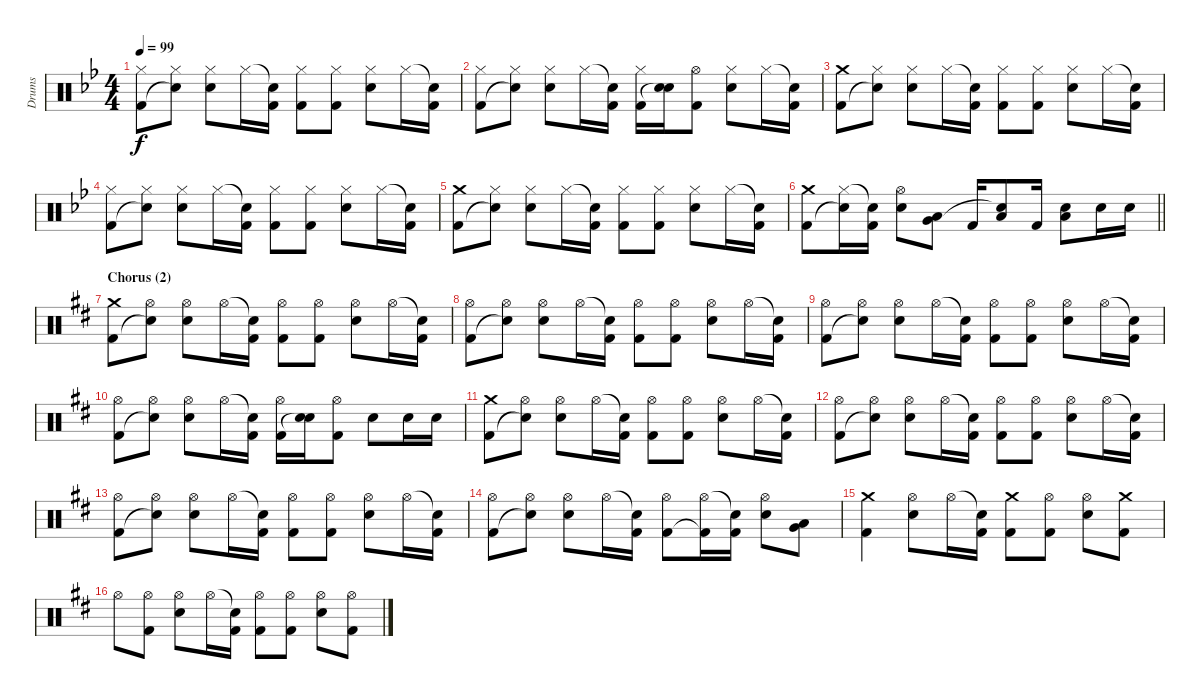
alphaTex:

\track ("Drums" "Drums") {instrument percussion}
\staff {score}
\articulation defaults
\ts (4 4)
\tempo 99
\clef neutral
\ks gminor
("Hi-Hat (closed)" "Kick (hit) 2").8{dy f} ("Hi-Hat (closed)" "Snare (hit)"{t}).8 ("Hi-Hat (closed)" "Electric Snare (hit)").8 "Hi-Hat (closed)".16 ("Snare (hit)"{t} "Kick (hit) 2").16 ("Hi-Hat (closed)" "Kick (hit) 2").8 ("Hi-Hat (closed)" "Kick (hit) 2").8 ("Hi-Hat (closed)" "Electric Snare (hit)").8 "Hi-Hat (closed)".16 ("Snare (hit)"{t} "Kick (hit) 2").16 |
("Hi-Hat (closed)" "Kick (hit) 2").8 ("Hi-Hat (closed)" "Snare (hit)"{t}).8 ("Hi-Hat (closed)" "Electric Snare (hit)").8 "Hi-Hat (closed)".16 ("Snare (hit)"{t} "Kick (hit) 2").16 ("Hi-Hat (closed)" "Kick (hit) 2").16 ("Electric Snare (hit)" "Snare (hit)"{t}).16 ("Hi-Hat (open)" "Kick (hit) 2").8 ("Hi-Hat (closed)" "Electric Snare (hit)").8 "Hi-Hat (closed)".16 ("Snare (hit)"{t} "Kick (hit) 2").16 |
("Crash medium (hit)" "Kick (hit) 2").8 ("Hi-Hat (closed)" "Snare (hit)"{t}).8 ("Hi-Hat (closed)" "Electric Snare (hit)").8 "Hi-Hat (closed)".16 ("Snare (hit)"{t} "Kick (hit) 2").16 ("Hi-Hat (closed)" "Kick (hit) 2").8 ("Hi-Hat (closed)" "Kick (hit) 2").8 ("Hi-Hat (closed)" "Electric Snare (hit)").8 "Hi-Hat (closed)".16 ("Snare (hit)"{t} "Kick (hit) 2").16 |
("Hi-Hat (closed)" "Kick (hit) 2").8 ("Hi-Hat (closed)" "Snare (hit)"{t}).8 ("Hi-Hat (closed)" "Electric Snare (hit)").8 "Hi-Hat (closed)".16 ("Snare (hit)"{t} "Kick (hit) 2").16 ("Hi-Hat (closed)" "Kick (hit) 2").8 ("Hi-Hat (closed)" "Kick (hit) 2").8 ("Hi-Hat (closed)" "Electric Snare (hit)").8 "Hi-Hat (closed)".16 ("Snare (hit)"{t} "Kick (hit) 2").16 |
("Crash medium (hit)" "Kick (hit) 2").8 ("Hi-Hat (closed)" "Snare (hit)"{t}).8 ("Hi-Hat (closed)" "Electric Snare (hit)").8 "Hi-Hat (closed)".16 ("Snare (hit)"{t} "Kick (hit) 2").16 ("Hi-Hat (closed)" "Kick (hit) 2").8 ("Hi-Hat (closed)" "Kick (hit) 2").8 ("Hi-Hat (closed)" "Electric Snare (hit)").8 "Hi-Hat (closed)".16 ("Snare (hit)"{t} "Kick (hit) 2").16 |
\barLineRight lightlight
("Crash medium (hit)" "Kick (hit) 2").8 ("Hi-Hat (closed)" "Snare (hit)"{t}).16 ("Snare (hit)"{t} "Kick (hit) 2").16 ("Hi-Hat (open)" "Electric Snare (hit)").8 ("Low Tom (hit)" "Very Low Tom (hit)").8 "Kick (hit) 2".16 ("Low Tom (hit)" "Snare (hit)"{t}).8 "Kick (hit) 2".16 ("Electric Snare (hit)" "Low Floor Tom (hit)").8 "Electric Snare (hit)".16 "Electric Snare (hit)".16 |
\section ("" "Chorus (2)")
\ks d
("Crash medium (hit)" "Kick (hit) 2").8 ("Hi-Hat (open)" "Snare (hit)"{t}).8 ("Hi-Hat (open)" "Electric Snare (hit)").8 "Hi-Hat (open)".16 ("Snare (hit)"{t} "Kick (hit) 2").16 ("Hi-Hat (open)" "Kick (hit) 2").8 ("Hi-Hat (open)" "Kick (hit) 2").8 ("Hi-Hat (open)" "Electric Snare (hit)").8 "Hi-Hat (open)".16 ("Snare (hit)"{t} "Kick (hit) 2").16 |
("Hi-Hat (open)" "Kick (hit) 2").8 ("Hi-Hat (open)" "Snare (hit)"{t}).8 ("Hi-Hat (open)" "Electric Snare (hit)").8 "Hi-Hat (open)".16 ("Snare (hit)"{t} "Kick (hit) 2").16 ("Hi-Hat (open)" "Kick (hit) 2").8 ("Hi-Hat (open)" "Kick (hit) 2").8 ("Hi-Hat (open)" "Electric Snare (hit)").8 "Hi-Hat (open)".16 ("Snare (hit)"{t} "Kick (hit) 2").16 |
("Hi-Hat (open)" "Kick (hit) 2").8 ("Hi-Hat (open)" "Snare (hit)"{t}).8 ("Hi-Hat (open)" "Electric Snare (hit)").8 "Hi-Hat (open)".16 ("Snare (hit)"{t} "Kick (hit) 2").16 ("Hi-Hat (open)" "Kick (hit) 2").8 ("Hi-Hat (open)" "Kick (hit) 2").8 ("Hi-Hat (open)" "Electric Snare (hit)").8 "Hi-Hat (open)".16 ("Snare (hit)"{t} "Kick (hit) 2").16 |
("Hi-Hat (open)" "Kick (hit) 2").8 ("Hi-Hat (open)" "Snare (hit)"{t}).8 ("Hi-Hat (open)" "Electric Snare (hit)").8 "Hi-Hat (open)".16 ("Snare (hit)"{t} "Kick (hit) 2").16 ("Hi-Hat (open)" "Kick (hit) 2").16 ("Electric Snare (hit)" "Snare (hit)"{t}).16 ("Hi-Hat (open)" "Kick (hit) 2").8 "Electric Snare (hit)".8 "Electric Snare (hit)".16 "Electric Snare (hit)".16 |
("Crash medium (hit)" "Kick (hit) 2").8 ("Hi-Hat (open)" "Snare (hit)"{t}).8 ("Hi-Hat (open)" "Electric Snare (hit)").8 "Hi-Hat (open)".16 ("Snare (hit)"{t} "Kick (hit) 2").16 ("Hi-Hat (open)" "Kick (hit) 2").8 ("Hi-Hat (open)" "Kick (hit) 2").8 ("Hi-Hat (open)" "Electric Snare (hit)").8 "Hi-Hat (open)".16 ("Snare (hit)"{t} "Kick (hit) 2").16 |
("Hi-Hat (open)" "Kick (hit) 2").8 ("Hi-Hat (open)" "Snare (hit)"{t}).8 ("Hi-Hat (open)" "Electric Snare (hit)").8 "Hi-Hat (open)".16 ("Snare (hit)"{t} "Kick (hit) 2").16 ("Hi-Hat (open)" "Kick (hit) 2").8 ("Hi-Hat (open)" "Kick (hit) 2").8 ("Hi-Hat (open)" "Electric Snare (hit)").8 "Hi-Hat (open)".16 ("Snare (hit)"{t} "Kick (hit) 2").16 |
("Hi-Hat (open)" "Kick (hit) 2").8 ("Hi-Hat (open)" "Snare (hit)"{t}).8 ("Hi-Hat (open)" "Electric Snare (hit)").8 "Hi-Hat (open)".16 ("Snare (hit)"{t} "Kick (hit) 2").16 ("Hi-Hat (open)" "Kick (hit) 2").8 ("Hi-Hat (open)" "Kick (hit) 2").8 ("Hi-Hat (open)" "Electric Snare (hit)").8 "Hi-Hat (open)".16 ("Snare (hit)"{t} "Kick (hit) 2").16 |
("Hi-Hat (open)" "Kick (hit) 2").8 ("Hi-Hat (open)" "Snare (hit)"{t}).8 ("Hi-Hat (open)" "Electric Snare (hit)").8 "Hi-Hat (open)".16 ("Snare (hit)"{t} "Kick (hit) 2").16 ("Hi-Hat (open)" "Kick (hit) 2").8 ("Hi-Hat (open)" "Kick (hit) 2"{t}).16 ("Snare (hit)"{t} "Kick (hit) 2").16 ("Hi-Hat (open)" "Electric Snare (hit)").8 ("Low Tom (hit)" "Very Low Tom (hit)").8 |
("Crash medium (hit)" "Kick (hit) 2").4 ("Hi-Hat (open)" "Electric Snare (hit)").8 "Hi-Hat (open)".16 ("Snare (hit)"{t} "Kick (hit) 2").16 ("Crash medium (hit)" "Kick (hit) 2").8 ("Hi-Hat (open)" "Kick (hit) 2").8 ("Hi-Hat (open)" "Electric Snare (hit)").8 ("Crash medium (hit)" "Kick (hit) 2").8 |
"Hi-Hat (open)".8 ("Hi-Hat (open)" "Kick (hit) 2").8 ("Hi-Hat (open)" "Electric Snare (hit)").8 "Hi-Hat (open)".16 ("Snare (hit)"{t} "Kick (hit) 2").16 ("Hi-Hat (open)" "Kick (hit) 2").8 ("Hi-Hat (open)" "Kick (hit) 2").8 ("Hi-Hat (open)" "Electric Snare (hit)").8 ("Hi-Hat (open)" "Kick (hit) 2").8
